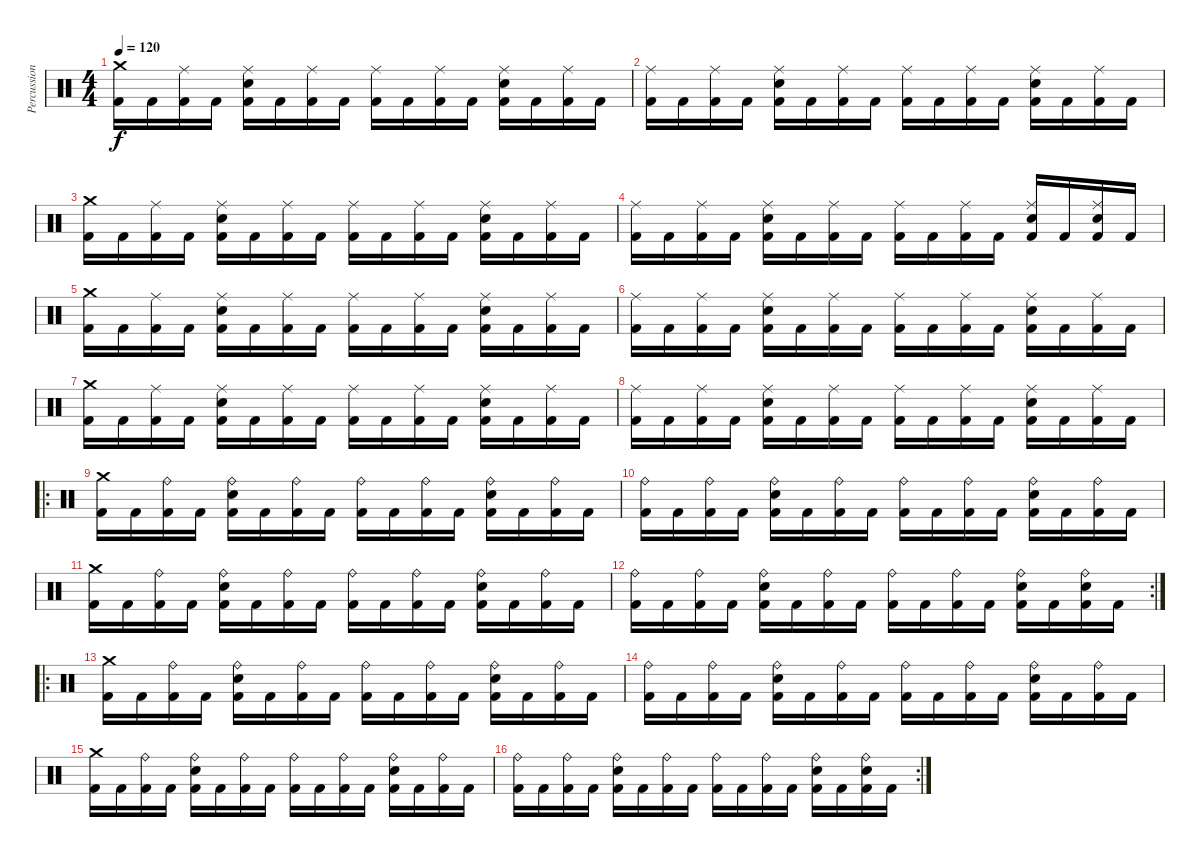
\track ("Percussion" "Percussion") {instrument percussion}
\staff {score}
\articulation defaults
\ts (4 4)
\tempo 120
\clef neutral
\ks c
("Crash medium (hit)" "Kick (hit) 2").16{dy f} "Kick (hit) 2".16 ("Ride (middle)" "Kick (hit) 2").16 "Kick (hit) 2".16 ("Ride (middle)" "Snare (hit) 2" "Kick (hit) 2").16 "Kick (hit) 2".16 ("Ride (middle)" "Kick (hit) 2").16 "Kick (hit) 2".16 ("Ride (middle)" "Kick (hit) 2").16 "Kick (hit) 2".16 ("Ride (middle)" "Kick (hit) 2").16 "Kick (hit) 2".16 ("Ride (middle)" "Snare (hit) 2" "Kick (hit) 2").16 "Kick (hit) 2".16 ("Ride (middle)" "Kick (hit) 2").16 "Kick (hit) 2".16 |
("Ride (middle)" "Kick (hit) 2").16 "Kick (hit) 2".16 ("Ride (middle)" "Kick (hit) 2").16 "Kick (hit) 2".16 ("Ride (middle)" "Snare (hit) 2" "Kick (hit) 2").16 "Kick (hit) 2".16 ("Ride (middle)" "Kick (hit) 2").16 "Kick (hit) 2".16 ("Ride (middle)" "Kick (hit) 2").16 "Kick (hit) 2".16 ("Ride (middle)" "Kick (hit) 2").16 "Kick (hit) 2".16 ("Ride (middle)" "Snare (hit) 2" "Kick (hit) 2").16 "Kick (hit) 2".16 ("Ride (middle)" "Kick (hit) 2").16 "Kick (hit) 2".16 |
("Crash medium (hit)" "Kick (hit) 2").16 "Kick (hit) 2".16 ("Ride (middle)" "Kick (hit) 2").16 "Kick (hit) 2".16 ("Ride (middle)" "Snare (hit) 2" "Kick (hit) 2").16 "Kick (hit) 2".16 ("Ride (middle)" "Kick (hit) 2").16 "Kick (hit) 2".16 ("Ride (middle)" "Kick (hit) 2").16 "Kick (hit) 2".16 ("Ride (middle)" "Kick (hit) 2").16 "Kick (hit) 2".16 ("Ride (middle)" "Snare (hit) 2" "Kick (hit) 2").16 "Kick (hit) 2".16 ("Ride (middle)" "Kick (hit) 2").16 "Kick (hit) 2".16 |
("Ride (middle)" "Kick (hit) 2").16 "Kick (hit) 2".16 ("Ride (middle)" "Kick (hit) 2").16 "Kick (hit) 2".16 ("Ride (middle)" "Snare (hit) 2" "Kick (hit) 2").16 "Kick (hit) 2".16 ("Ride (middle)" "Kick (hit) 2").16 "Kick (hit) 2".16 ("Ride (middle)" "Kick (hit) 2").16 "Kick (hit) 2".16 ("Ride (middle)" "Kick (hit) 2").16 "Kick (hit) 2".16 ("Ride (middle)" "Snare (hit) 2" "Kick (hit) 2").16 "Kick (hit) 2".16 ("Ride (middle)" "Snare (hit) 2" "Kick (hit) 2").16 "Kick (hit) 2".16 |
("Crash medium (hit)" "Kick (hit) 2").16 "Kick (hit) 2".16 ("Ride (middle)" "Kick (hit) 2").16 "Kick (hit) 2".16 ("Ride (middle)" "Snare (hit) 2" "Kick (hit) 2").16 "Kick (hit) 2".16 ("Ride (middle)" "Kick (hit) 2").16 "Kick (hit) 2".16 ("Ride (middle)" "Kick (hit) 2").16 "Kick (hit) 2".16 ("Ride (middle)" "Kick (hit) 2").16 "Kick (hit) 2".16 ("Ride (middle)" "Snare (hit) 2" "Kick (hit) 2").16 "Kick (hit) 2".16 ("Ride (middle)" "Kick (hit) 2").16 "Kick (hit) 2".16 |
("Ride (middle)" "Kick (hit) 2").16 "Kick (hit) 2".16 ("Ride (middle)" "Kick (hit) 2").16 "Kick (hit) 2".16 ("Ride (middle)" "Snare (hit) 2" "Kick (hit) 2").16 "Kick (hit) 2".16 ("Ride (middle)" "Kick (hit) 2").16 "Kick (hit) 2".16 ("Ride (middle)" "Kick (hit) 2").16 "Kick (hit) 2".16 ("Ride (middle)" "Kick (hit) 2").16 "Kick (hit) 2".16 ("Ride (middle)" "Snare (hit) 2" "Kick (hit) 2").16 "Kick (hit) 2".16 ("Ride (middle)" "Kick (hit) 2").16 "Kick (hit) 2".16 |
("Crash medium (hit)" "Kick (hit) 2").16 "Kick (hit) 2".16 ("Ride (middle)" "Kick (hit) 2").16 "Kick (hit) 2".16 ("Ride (middle)" "Snare (hit) 2" "Kick (hit) 2").16 "Kick (hit) 2".16 ("Ride (middle)" "Kick (hit) 2").16 "Kick (hit) 2".16 ("Ride (middle)" "Kick (hit) 2").16 "Kick (hit) 2".16 ("Ride (middle)" "Kick (hit) 2").16 "Kick (hit) 2".16 ("Ride (middle)" "Snare (hit) 2" "Kick (hit) 2").16 "Kick (hit) 2".16 ("Ride (middle)" "Kick (hit) 2").16 "Kick (hit) 2".16 |
("Ride (middle)" "Kick (hit) 2").16 "Kick (hit) 2".16 ("Ride (middle)" "Kick (hit) 2").16 "Kick (hit) 2".16 ("Ride (middle)" "Snare (hit) 2" "Kick (hit) 2").16 "Kick (hit) 2".16 ("Ride (middle)" "Kick (hit) 2").16 "Kick (hit) 2".16 ("Ride (middle)" "Kick (hit) 2").16 "Kick (hit) 2".16 ("Ride (middle)" "Kick (hit) 2").16 "Kick (hit) 2".16 ("Ride (middle)" "Snare (hit) 2" "Kick (hit) 2").16 "Kick (hit) 2".16 ("Ride (middle)" "Kick (hit) 2").16 "Kick (hit) 2".16 |
\ro
("Crash medium (hit)" "Kick (hit) 2").16 "Kick (hit) 2".16 ("Ride (bell)" "Kick (hit) 2").16 "Kick (hit) 2".16 ("Ride (bell)" "Snare (hit) 2" "Kick (hit) 2").16 "Kick (hit) 2".16 ("Ride (bell)" "Kick (hit) 2").16 "Kick (hit) 2".16 ("Ride (bell)" "Kick (hit) 2").16 "Kick (hit) 2".16 ("Ride (bell)" "Kick (hit) 2").16 "Kick (hit) 2".16 ("Ride (bell)" "Snare (hit) 2" "Kick (hit) 2").16 "Kick (hit) 2".16 ("Ride (bell)" "Kick (hit) 2").16 "Kick (hit) 2".16 |
("Ride (bell)" "Kick (hit) 2").16 "Kick (hit) 2".16 ("Ride (bell)" "Kick (hit) 2").16 "Kick (hit) 2".16 ("Ride (bell)" "Snare (hit) 2" "Kick (hit) 2").16 "Kick (hit) 2".16 ("Ride (bell)" "Kick (hit) 2").16 "Kick (hit) 2".16 ("Ride (bell)" "Kick (hit) 2").16 "Kick (hit) 2".16 ("Ride (bell)" "Kick (hit) 2").16 "Kick (hit) 2".16 ("Ride (bell)" "Snare (hit) 2" "Kick (hit) 2").16 "Kick (hit) 2".16 ("Ride (bell)" "Kick (hit) 2").16 "Kick (hit) 2".16 |
("Crash medium (hit)" "Kick (hit) 2").16 "Kick (hit) 2".16 ("Ride (bell)" "Kick (hit) 2").16 "Kick (hit) 2".16 ("Ride (bell)" "Snare (hit) 2" "Kick (hit) 2").16 "Kick (hit) 2".16 ("Ride (bell)" "Kick (hit) 2").16 "Kick (hit) 2".16 ("Ride (bell)" "Kick (hit) 2").16 "Kick (hit) 2".16 ("Ride (bell)" "Kick (hit) 2").16 "Kick (hit) 2".16 ("Ride (bell)" "Snare (hit) 2" "Kick (hit) 2").16 "Kick (hit) 2".16 ("Ride (bell)" "Kick (hit) 2").16 "Kick (hit) 2".16 |
\rc 2
("Ride (bell)" "Kick (hit) 2").16 "Kick (hit) 2".16 ("Ride (bell)" "Kick (hit) 2").16 "Kick (hit) 2".16 ("Ride (bell)" "Snare (hit) 2" "Kick (hit) 2").16 "Kick (hit) 2".16 ("Ride (bell)" "Kick (hit) 2").16 "Kick (hit) 2".16 ("Ride (bell)" "Kick (hit) 2").16 "Kick (hit) 2".16 ("Ride (bell)" "Kick (hit) 2").16 "Kick (hit) 2".16 ("Ride (bell)" "Snare (hit) 2" "Kick (hit) 2").16 "Kick (hit) 2".16 ("Ride (bell)" "Snare (hit) 2" "Kick (hit) 2").16 "Kick (hit) 2".16 |
\ro
("Crash medium (hit)" "Kick (hit) 2").16 "Kick (hit) 2".16 ("Ride (bell)" "Kick (hit) 2").16 "Kick (hit) 2".16 ("Ride (bell)" "Snare (hit) 2" "Kick (hit) 2").16 "Kick (hit) 2".16 ("Ride (bell)" "Kick (hit) 2").16 "Kick (hit) 2".16 ("Ride (bell)" "Kick (hit) 2").16 "Kick (hit) 2".16 ("Ride (bell)" "Kick (hit) 2").16 "Kick (hit) 2".16 ("Ride (bell)" "Snare (hit) 2" "Kick (hit) 2").16 "Kick (hit) 2".16 ("Ride (bell)" "Kick (hit) 2").16 "Kick (hit) 2".16 |
("Ride (bell)" "Kick (hit) 2").16 "Kick (hit) 2".16 ("Ride (bell)" "Kick (hit) 2").16 "Kick (hit) 2".16 ("Ride (bell)" "Snare (hit) 2" "Kick (hit) 2").16 "Kick (hit) 2".16 ("Ride (bell)" "Kick (hit) 2").16 "Kick (hit) 2".16 ("Ride (bell)" "Kick (hit) 2").16 "Kick (hit) 2".16 ("Ride (bell)" "Kick (hit) 2").16 "Kick (hit) 2".16 ("Ride (bell)" "Snare (hit) 2" "Kick (hit) 2").16 "Kick (hit) 2".16 ("Ride (bell)" "Kick (hit) 2").16 "Kick (hit) 2".16 |
("Crash medium (hit)" "Kick (hit) 2").16 "Kick (hit) 2".16 ("Ride (bell)" "Kick (hit) 2").16 "Kick (hit) 2".16 ("Ride (bell)" "Snare (hit) 2" "Kick (hit) 2").16 "Kick (hit) 2".16 ("Ride (bell)" "Kick (hit) 2").16 "Kick (hit) 2".16 ("Ride (bell)" "Kick (hit) 2").16 "Kick (hit) 2".16 ("Ride (bell)" "Kick (hit) 2").16 "Kick (hit) 2".16 ("Ride (bell)" "Snare (hit) 2" "Kick (hit) 2").16 "Kick (hit) 2".16 ("Ride (bell)" "Kick (hit) 2").16 "Kick (hit) 2".16 |
\rc 2
("Ride (bell)" "Kick (hit) 2").16 "Kick (hit) 2".16 ("Ride (bell)" "Kick (hit) 2").16 "Kick (hit) 2".16 ("Ride (bell)" "Snare (hit) 2" "Kick (hit) 2").16 "Kick (hit) 2".16 ("Ride (bell)" "Kick (hit) 2").16 "Kick (hit) 2".16 ("Ride (bell)" "Kick (hit) 2").16 "Kick (hit) 2".16 ("Ride (bell)" "Kick (hit) 2").16 "Kick (hit) 2".16 ("Ride (bell)" "Snare (hit) 2" "Kick (hit) 2").16 "Kick (hit) 2".16 ("Ride (bell)" "Snare (hit) 2" "Kick (hit) 2").16 "Kick (hit) 2".16
